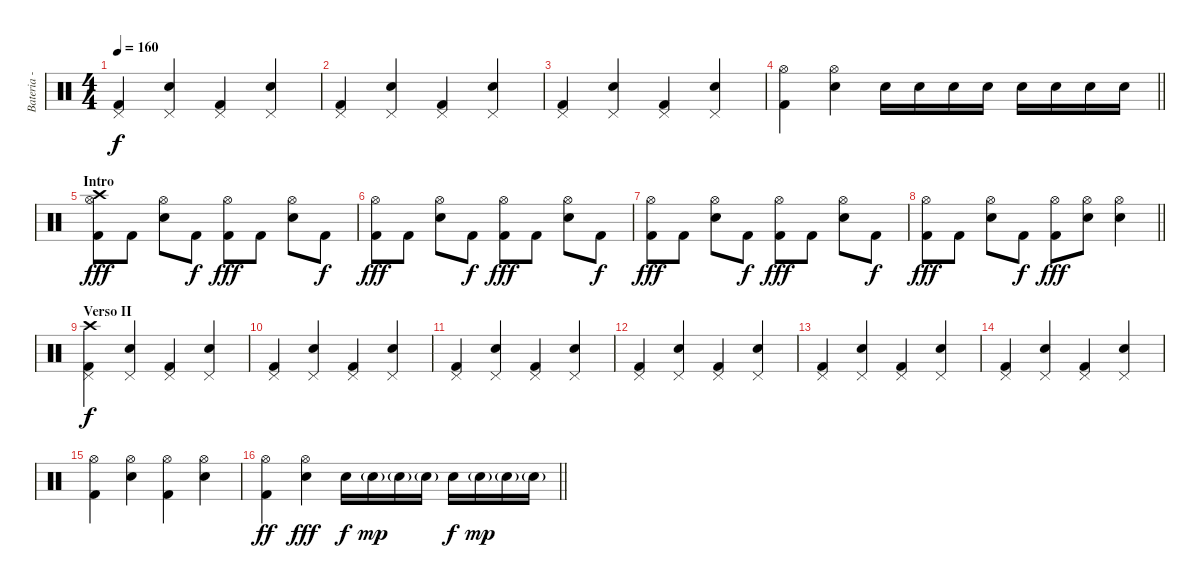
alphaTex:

\track ("Bateria - Larzon" "Bateria - ") {instrument percussion}
\staff {score}
\articulation defaults
\ts (4 4)
\tempo 160
\clef neutral
\ks c
("Kick (hit) 2" "Pedal Hi-Hat (hit)").4{dy f} ("Electric Snare (hit)" "Pedal Hi-Hat (hit)").4 ("Kick (hit) 2" "Pedal Hi-Hat (hit)").4 ("Electric Snare (hit)" "Pedal Hi-Hat (hit)").4 |
("Kick (hit) 2" "Pedal Hi-Hat (hit)").4 ("Electric Snare (hit)" "Pedal Hi-Hat (hit)").4 ("Kick (hit) 2" "Pedal Hi-Hat (hit)").4 ("Electric Snare (hit)" "Pedal Hi-Hat (hit)").4 |
("Kick (hit) 2" "Pedal Hi-Hat (hit)").4 ("Electric Snare (hit)" "Pedal Hi-Hat (hit)").4 ("Kick (hit) 2" "Pedal Hi-Hat (hit)").4 ("Electric Snare (hit)" "Pedal Hi-Hat (hit)").4 |
\barLineRight lightlight
("Kick (hit) 2" "Hi-Hat (open)").4 ("Electric Snare (hit)" "Hi-Hat (open)").4 "Electric Snare (hit)".16 "Electric Snare (hit)".16 "Electric Snare (hit)".16 "Electric Snare (hit)".16 "Electric Snare (hit)".16 "Electric Snare (hit)".16 "Electric Snare (hit)".16 "Electric Snare (hit)".16 |
\section ("" "Intro")
("Kick (hit) 2" "Hi-Hat (open)" "Crash high (hit)").8{dy fff} "Kick (hit) 2".8 ("Electric Snare (hit)" "Hi-Hat (open)").8 "Kick (hit) 2".8{dy f} ("Kick (hit) 2" "Hi-Hat (open)").8{dy fff} "Kick (hit) 2".8 ("Electric Snare (hit)" "Hi-Hat (open)").8 "Kick (hit) 2".8{dy f} |
("Kick (hit) 2" "Hi-Hat (open)").8{dy fff} "Kick (hit) 2".8 ("Electric Snare (hit)" "Hi-Hat (open)").8 "Kick (hit) 2".8{dy f} ("Kick (hit) 2" "Hi-Hat (open)").8{dy fff} "Kick (hit) 2".8 ("Electric Snare (hit)" "Hi-Hat (open)").8 "Kick (hit) 2".8{dy f} |
("Kick (hit) 2" "Hi-Hat (open)").8{dy fff} "Kick (hit) 2".8 ("Electric Snare (hit)" "Hi-Hat (open)").8 "Kick (hit) 2".8{dy f} ("Kick (hit) 2" "Hi-Hat (open)").8{dy fff} "Kick (hit) 2".8 ("Electric Snare (hit)" "Hi-Hat (open)").8 "Kick (hit) 2".8{dy f} |
\barLineRight lightlight
("Kick (hit) 2" "Hi-Hat (open)").8{dy fff} "Kick (hit) 2".8 ("Electric Snare (hit)" "Hi-Hat (open)").8 "Kick (hit) 2".8{dy f} ("Kick (hit) 2" "Hi-Hat (open)").8{dy fff} ("Electric Snare (hit)" "Hi-Hat (open)").8 ("Electric Snare (hit)" "Hi-Hat (open)").4 |
\section ("" "Verso II")
("Kick (hit) 2" "Pedal Hi-Hat (hit)" "Crash high (hit)").4{dy f} ("Electric Snare (hit)" "Pedal Hi-Hat (hit)").4 ("Kick (hit) 2" "Pedal Hi-Hat (hit)").4 ("Electric Snare (hit)" "Pedal Hi-Hat (hit)").4 |
("Kick (hit) 2" "Pedal Hi-Hat (hit)").4 ("Electric Snare (hit)" "Pedal Hi-Hat (hit)").4 ("Kick (hit) 2" "Pedal Hi-Hat (hit)").4 ("Electric Snare (hit)" "Pedal Hi-Hat (hit)").4 |
("Kick (hit) 2" "Pedal Hi-Hat (hit)").4 ("Electric Snare (hit)" "Pedal Hi-Hat (hit)").4 ("Kick (hit) 2" "Pedal Hi-Hat (hit)").4 ("Electric Snare (hit)" "Pedal Hi-Hat (hit)").4 |
("Kick (hit) 2" "Pedal Hi-Hat (hit)").4 ("Electric Snare (hit)" "Pedal Hi-Hat (hit)").4 ("Kick (hit) 2" "Pedal Hi-Hat (hit)").4 ("Electric Snare (hit)" "Pedal Hi-Hat (hit)").4 |
("Kick (hit) 2" "Pedal Hi-Hat (hit)").4 ("Electric Snare (hit)" "Pedal Hi-Hat (hit)").4 ("Kick (hit) 2" "Pedal Hi-Hat (hit)").4 ("Electric Snare (hit)" "Pedal Hi-Hat (hit)").4 |
("Kick (hit) 2" "Pedal Hi-Hat (hit)").4 ("Electric Snare (hit)" "Pedal Hi-Hat (hit)").4 ("Kick (hit) 2" "Pedal Hi-Hat (hit)").4 ("Electric Snare (hit)" "Pedal Hi-Hat (hit)").4 |
("Kick (hit) 2" "Hi-Hat (open)").4 ("Electric Snare (hit)" "Hi-Hat (open)").4 ("Kick (hit) 2" "Hi-Hat (open)").4 ("Electric Snare (hit)" "Hi-Hat (open)").4 |
\barLineRight lightlight
("Kick (hit) 2" "Hi-Hat (open)").4{dy ff} ("Electric Snare (hit)" "Hi-Hat (open)").4{dy fff} "Electric Snare (hit)".16{dy f} "Electric Snare (hit)"{g}.16{dy mp} "Electric Snare (hit)"{g}.16 "Electric Snare (hit)"{g}.16 "Electric Snare (hit)".16{dy f} "Electric Snare (hit)"{g}.16{dy mp} "Electric Snare (hit)"{g}.16 "Electric Snare (hit)"{g}.16
